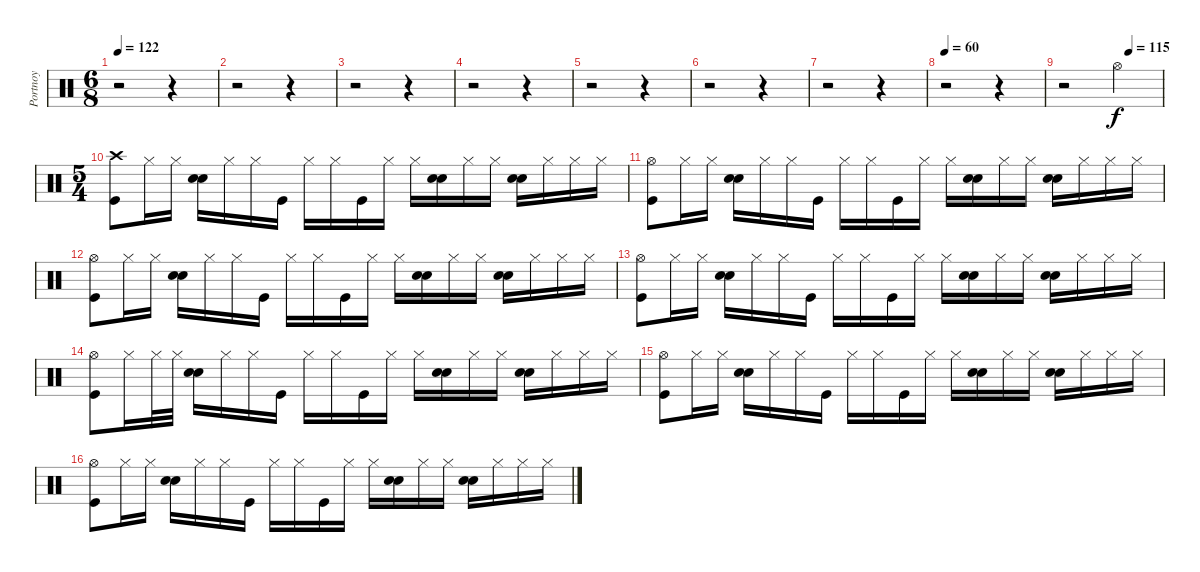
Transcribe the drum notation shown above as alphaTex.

\track ("Portnoy" "Portnoy") {instrument percussion}
\staff {score}
\articulation defaults
\ts (6 8)
\tempo 122
\clef neutral
\ks c
r.2{dy f} r.4 |
r.2 r.4 |
r.2 r.4 |
r.2 r.4 |
r.2 r.4 |
r.2 r.4 |
r.2 r.4 |
\tempo 60
r.2 r.4 |
\tempo (115 0.6666666666666666)
r.2 "Hi-Hat (open)".4 |
\ts (5 4)
("Crash high (hit)" "Kick (hit)").8 "Hi-Hat (closed)".16 "Hi-Hat (closed)".16 ("Snare (hit) 2" "Electric Snare (hit)").16 "Hi-Hat (closed)".16 "Hi-Hat (closed)".16 "Kick (hit)".16 "Hi-Hat (closed)".16 "Hi-Hat (closed)".16 "Kick (hit)".16 "Hi-Hat (closed)".16 "Hi-Hat (closed)".16 ("Snare (hit) 2" "Electric Snare (hit)").16 "Hi-Hat (closed)".16 "Hi-Hat (closed)".16 ("Snare (hit) 2" "Electric Snare (hit)").16 "Hi-Hat (closed)".16 "Hi-Hat (closed)".16 "Hi-Hat (closed)".16 |
("Hi-Hat (open)" "Kick (hit)").8 "Hi-Hat (closed)".16 "Hi-Hat (closed)".16 ("Snare (hit) 2" "Electric Snare (hit)").16 "Hi-Hat (closed)".16 "Hi-Hat (closed)".16 "Kick (hit)".16 "Hi-Hat (closed)".16 "Hi-Hat (closed)".16 "Kick (hit)".16 "Hi-Hat (closed)".16 "Hi-Hat (closed)".16 ("Snare (hit) 2" "Electric Snare (hit)").16 "Hi-Hat (closed)".16 "Hi-Hat (closed)".16 ("Snare (hit) 2" "Electric Snare (hit)").16 "Hi-Hat (closed)".16 "Hi-Hat (closed)".16 "Hi-Hat (closed)".16 |
("Hi-Hat (open)" "Kick (hit)").8 "Hi-Hat (closed)".16 "Hi-Hat (closed)".16 ("Snare (hit) 2" "Electric Snare (hit)").16 "Hi-Hat (closed)".16 "Hi-Hat (closed)".16 "Kick (hit)".16 "Hi-Hat (closed)".16 "Hi-Hat (closed)".16 "Kick (hit)".16 "Hi-Hat (closed)".16 "Hi-Hat (closed)".16 ("Snare (hit) 2" "Electric Snare (hit)").16 "Hi-Hat (closed)".16 "Hi-Hat (closed)".16 ("Snare (hit) 2" "Electric Snare (hit)").16 "Hi-Hat (closed)".16 "Hi-Hat (closed)".16 "Hi-Hat (closed)".16 |
("Hi-Hat (open)" "Kick (hit)").8 "Hi-Hat (closed)".16 "Hi-Hat (closed)".16 ("Snare (hit) 2" "Electric Snare (hit)").16 "Hi-Hat (closed)".16 "Hi-Hat (closed)".16 "Kick (hit)".16 "Hi-Hat (closed)".16 "Hi-Hat (closed)".16 "Kick (hit)".16 "Hi-Hat (closed)".16 "Hi-Hat (closed)".16 ("Snare (hit) 2" "Electric Snare (hit)").16 "Hi-Hat (closed)".16 "Hi-Hat (closed)".16 ("Snare (hit) 2" "Electric Snare (hit)").16 "Hi-Hat (closed)".16 "Hi-Hat (closed)".16 "Hi-Hat (closed)".16 |
("Hi-Hat (open)" "Kick (hit)").8 "Hi-Hat (closed)".16 "Hi-Hat (closed)".32 "Hi-Hat (closed)".32 ("Snare (hit) 2" "Electric Snare (hit)").16 "Hi-Hat (closed)".16 "Hi-Hat (closed)".16 "Kick (hit)".16 "Hi-Hat (closed)".16 "Hi-Hat (closed)".16 "Kick (hit)".16 "Hi-Hat (closed)".16 "Hi-Hat (closed)".16 ("Snare (hit) 2" "Electric Snare (hit)").16 "Hi-Hat (closed)".16 "Hi-Hat (closed)".16 ("Snare (hit) 2" "Electric Snare (hit)").16 "Hi-Hat (closed)".16 "Hi-Hat (closed)".16 "Hi-Hat (closed)".16 |
("Hi-Hat (open)" "Kick (hit)").8 "Hi-Hat (closed)".16 "Hi-Hat (closed)".16 ("Snare (hit) 2" "Electric Snare (hit)").16 "Hi-Hat (closed)".16 "Hi-Hat (closed)".16 "Kick (hit)".16 "Hi-Hat (closed)".16 "Hi-Hat (closed)".16 "Kick (hit)".16 "Hi-Hat (closed)".16 "Hi-Hat (closed)".16 ("Snare (hit) 2" "Electric Snare (hit)").16 "Hi-Hat (closed)".16 "Hi-Hat (closed)".16 ("Snare (hit) 2" "Electric Snare (hit)").16 "Hi-Hat (closed)".16 "Hi-Hat (closed)".16 "Hi-Hat (closed)".16 |
("Hi-Hat (open)" "Kick (hit)").8 "Hi-Hat (closed)".16 "Hi-Hat (closed)".16 ("Snare (hit) 2" "Electric Snare (hit)").16 "Hi-Hat (closed)".16 "Hi-Hat (closed)".16 "Kick (hit)".16 "Hi-Hat (closed)".16 "Hi-Hat (closed)".16 "Kick (hit)".16 "Hi-Hat (closed)".16 "Hi-Hat (closed)".16 ("Snare (hit) 2" "Electric Snare (hit)").16 "Hi-Hat (closed)".16 "Hi-Hat (closed)".16 ("Snare (hit) 2" "Electric Snare (hit)").16 "Hi-Hat (closed)".16 "Hi-Hat (closed)".16 "Hi-Hat (closed)".16
